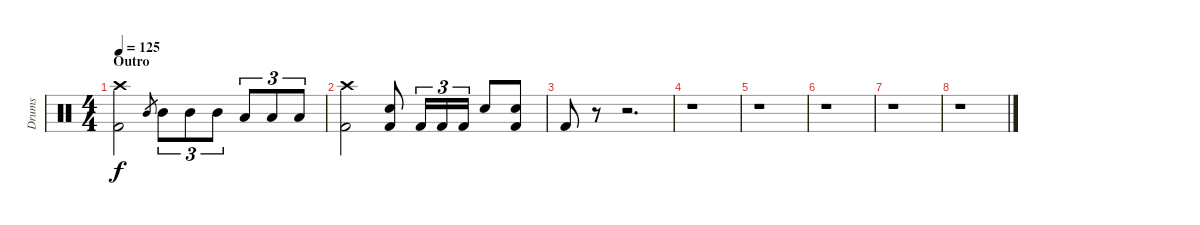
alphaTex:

\track ("Drums" "Drums") {instrument percussion}
\staff {score}
\articulation defaults
\ts (4 4)
\section ("" "Outro")
\tempo 125
\clef neutral
\ks c
("Crash high (hit)" "Kick (hit) 2").2{dy f} "Mid Tom (hit)".8{gr} "Mid Tom (hit)".8{tu (3 2)} "Mid Tom (hit)".8{tu (3 2)} "Mid Tom (hit)".8{tu (3 2)} "Low Tom (hit)".8{tu (3 2)} "Low Tom (hit)".8{tu (3 2)} "Low Tom (hit)".8{tu (3 2)} |
("Crash high (hit)" "Kick (hit) 2").2 ("Snare (hit) 2" "Kick (hit) 2").8 "Kick (hit) 2".16{tu (3 2)} "Kick (hit) 2".16{tu (3 2)} "Kick (hit) 2".16{tu (3 2)} "Snare (hit) 2".8 ("Snare (hit) 2" "Kick (hit) 2").8 |
"Kick (hit) 2".8 r.8 r.2{d} |
r.1 |
r.1 |
r.1 |
r.1 |
r.1
